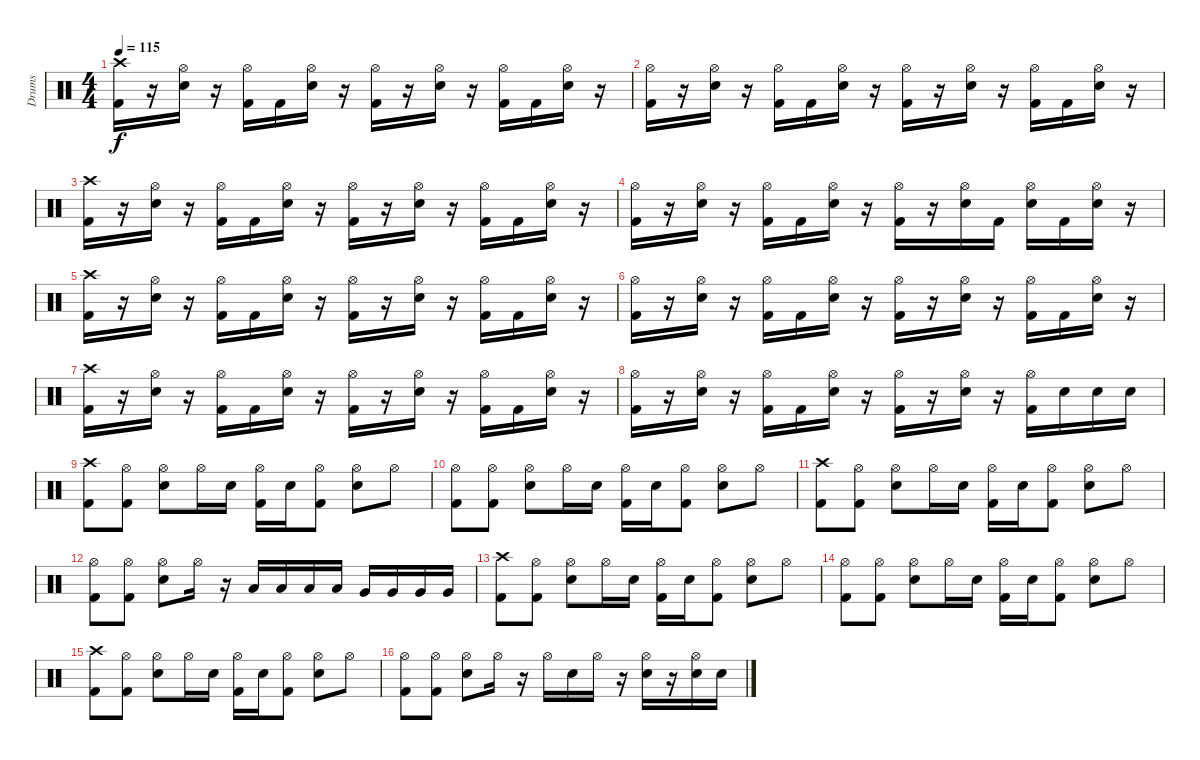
\track ("Drums" "Drums") {instrument percussion}
\staff {score}
\articulation defaults
\ts (4 4)
\tempo 115
\clef neutral
\ks c
("Crash high (hit)" "Kick (hit) 2").16{dy f} r.16 ("Hi-Hat (open)" "Snare (hit) 2").16 r.16 ("Hi-Hat (open)" "Kick (hit) 2").16 "Kick (hit) 2".16 ("Hi-Hat (open)" "Snare (hit) 2").16 r.16 ("Hi-Hat (open)" "Kick (hit) 2").16 r.16 ("Hi-Hat (open)" "Snare (hit) 2").16 r.16 ("Hi-Hat (open)" "Kick (hit) 2").16 "Kick (hit) 2".16 ("Hi-Hat (open)" "Snare (hit) 2").16 r.16 |
("Hi-Hat (open)" "Kick (hit) 2").16 r.16 ("Hi-Hat (open)" "Snare (hit) 2").16 r.16 ("Hi-Hat (open)" "Kick (hit) 2").16 "Kick (hit) 2".16 ("Hi-Hat (open)" "Snare (hit) 2").16 r.16 ("Hi-Hat (open)" "Kick (hit) 2").16 r.16 ("Hi-Hat (open)" "Snare (hit) 2").16 r.16 ("Hi-Hat (open)" "Kick (hit) 2").16 "Kick (hit) 2".16 ("Hi-Hat (open)" "Snare (hit) 2").16 r.16 |
("Crash high (hit)" "Kick (hit) 2").16 r.16 ("Hi-Hat (open)" "Snare (hit) 2").16 r.16 ("Hi-Hat (open)" "Kick (hit) 2").16 "Kick (hit) 2".16 ("Hi-Hat (open)" "Snare (hit) 2").16 r.16 ("Hi-Hat (open)" "Kick (hit) 2").16 r.16 ("Hi-Hat (open)" "Snare (hit) 2").16 r.16 ("Hi-Hat (open)" "Kick (hit) 2").16 "Kick (hit) 2".16 ("Hi-Hat (open)" "Snare (hit) 2").16 r.16 |
("Hi-Hat (open)" "Kick (hit) 2").16 r.16 ("Hi-Hat (open)" "Snare (hit) 2").16 r.16 ("Hi-Hat (open)" "Kick (hit) 2").16 "Kick (hit) 2".16 ("Hi-Hat (open)" "Snare (hit) 2").16 r.16 ("Hi-Hat (open)" "Kick (hit) 2").16 r.16 ("Hi-Hat (open)" "Snare (hit) 2").16 "Kick (hit) 2".16 ("Hi-Hat (open)" "Snare (hit) 2").16 "Kick (hit) 2".16 ("Hi-Hat (open)" "Snare (hit) 2").16 r.16 |
("Crash high (hit)" "Kick (hit) 2").16 r.16 ("Hi-Hat (open)" "Snare (hit) 2").16 r.16 ("Hi-Hat (open)" "Kick (hit) 2").16 "Kick (hit) 2".16 ("Hi-Hat (open)" "Snare (hit) 2").16 r.16 ("Hi-Hat (open)" "Kick (hit) 2").16 r.16 ("Hi-Hat (open)" "Snare (hit) 2").16 r.16 ("Hi-Hat (open)" "Kick (hit) 2").16 "Kick (hit) 2".16 ("Hi-Hat (open)" "Snare (hit) 2").16 r.16 |
("Hi-Hat (open)" "Kick (hit) 2").16 r.16 ("Hi-Hat (open)" "Snare (hit) 2").16 r.16 ("Hi-Hat (open)" "Kick (hit) 2").16 "Kick (hit) 2".16 ("Hi-Hat (open)" "Snare (hit) 2").16 r.16 ("Hi-Hat (open)" "Kick (hit) 2").16 r.16 ("Hi-Hat (open)" "Snare (hit) 2").16 r.16 ("Hi-Hat (open)" "Kick (hit) 2").16 "Kick (hit) 2".16 ("Hi-Hat (open)" "Snare (hit) 2").16 r.16 |
("Crash high (hit)" "Kick (hit) 2").16 r.16 ("Hi-Hat (open)" "Snare (hit) 2").16 r.16 ("Hi-Hat (open)" "Kick (hit) 2").16 "Kick (hit) 2".16 ("Hi-Hat (open)" "Snare (hit) 2").16 r.16 ("Hi-Hat (open)" "Kick (hit) 2").16 r.16 ("Hi-Hat (open)" "Snare (hit) 2").16 r.16 ("Hi-Hat (open)" "Kick (hit) 2").16 "Kick (hit) 2".16 ("Hi-Hat (open)" "Snare (hit) 2").16 r.16 |
("Hi-Hat (open)" "Kick (hit) 2").16 r.16 ("Hi-Hat (open)" "Snare (hit) 2").16 r.16 ("Hi-Hat (open)" "Kick (hit) 2").16 "Kick (hit) 2".16 ("Hi-Hat (open)" "Snare (hit) 2").16 r.16 ("Hi-Hat (open)" "Kick (hit) 2").16 r.16 ("Hi-Hat (open)" "Snare (hit) 2").16 r.16 ("Hi-Hat (open)" "Kick (hit) 2").16 "Snare (hit) 2".16 "Snare (hit) 2".16 "Snare (hit) 2".16 |
("Crash high (hit)" "Kick (hit) 2").8 ("Hi-Hat (open)" "Kick (hit) 2").8 ("Hi-Hat (open)" "Snare (hit) 2").8 "Hi-Hat (open)".16 "Snare (hit) 2".16 ("Hi-Hat (open)" "Kick (hit) 2").16 "Snare (hit) 2".16 ("Hi-Hat (open)" "Kick (hit) 2").8 ("Hi-Hat (open)" "Snare (hit) 2").8 "Hi-Hat (open)".8 |
("Hi-Hat (open)" "Kick (hit) 2").8 ("Hi-Hat (open)" "Kick (hit) 2").8 ("Hi-Hat (open)" "Snare (hit) 2").8 "Hi-Hat (open)".16 "Snare (hit) 2".16 ("Hi-Hat (open)" "Kick (hit) 2").16 "Snare (hit) 2".16 ("Hi-Hat (open)" "Kick (hit) 2").8 ("Hi-Hat (open)" "Snare (hit) 2").8 "Hi-Hat (open)".8 |
("Crash high (hit)" "Kick (hit) 2").8 ("Hi-Hat (open)" "Kick (hit) 2").8 ("Hi-Hat (open)" "Snare (hit) 2").8 "Hi-Hat (open)".16 "Snare (hit) 2".16 ("Hi-Hat (open)" "Kick (hit) 2").16 "Snare (hit) 2".16 ("Hi-Hat (open)" "Kick (hit) 2").8 ("Hi-Hat (open)" "Snare (hit) 2").8 "Hi-Hat (open)".8 |
("Hi-Hat (open)" "Kick (hit) 2").8 ("Hi-Hat (open)" "Kick (hit) 2").8 ("Hi-Hat (open)" "Snare (hit) 2").8 "Hi-Hat (open)".16 r.16 "Low Tom (hit)".16 "Low Tom (hit)".16 "Low Tom (hit)".16 "Low Tom (hit)".16 "Very Low Tom (hit)".16 "Very Low Tom (hit)".16 "Very Low Tom (hit)".16 "Very Low Tom (hit)".16 |
("Crash high (hit)" "Kick (hit) 2").8 ("Hi-Hat (open)" "Kick (hit) 2").8 ("Hi-Hat (open)" "Snare (hit) 2").8 "Hi-Hat (open)".16 "Snare (hit) 2".16 ("Hi-Hat (open)" "Kick (hit) 2").16 "Snare (hit) 2".16 ("Hi-Hat (open)" "Kick (hit) 2").8 ("Hi-Hat (open)" "Snare (hit) 2").8 "Hi-Hat (open)".8 |
("Hi-Hat (open)" "Kick (hit) 2").8 ("Hi-Hat (open)" "Kick (hit) 2").8 ("Hi-Hat (open)" "Snare (hit) 2").8 "Hi-Hat (open)".16 "Snare (hit) 2".16 ("Hi-Hat (open)" "Kick (hit) 2").16 "Snare (hit) 2".16 ("Hi-Hat (open)" "Kick (hit) 2").8 ("Hi-Hat (open)" "Snare (hit) 2").8 "Hi-Hat (open)".8 |
("Crash high (hit)" "Kick (hit) 2").8 ("Hi-Hat (open)" "Kick (hit) 2").8 ("Hi-Hat (open)" "Snare (hit) 2").8 "Hi-Hat (open)".16 "Snare (hit) 2".16 ("Hi-Hat (open)" "Kick (hit) 2").16 "Snare (hit) 2".16 ("Hi-Hat (open)" "Kick (hit) 2").8 ("Hi-Hat (open)" "Snare (hit) 2").8 "Hi-Hat (open)".8 |
("Hi-Hat (open)" "Kick (hit) 2").8 ("Hi-Hat (open)" "Kick (hit) 2").8 ("Hi-Hat (open)" "Snare (hit) 2").8 "Hi-Hat (open)".16 r.16 "Hi-Hat (open)".16 "Snare (hit) 2".16 "Hi-Hat (open)".16 r.16 ("Hi-Hat (open)" "Snare (hit) 2").16 r.16 ("Hi-Hat (open)" "Snare (hit) 2").16 "Snare (hit) 2".16
